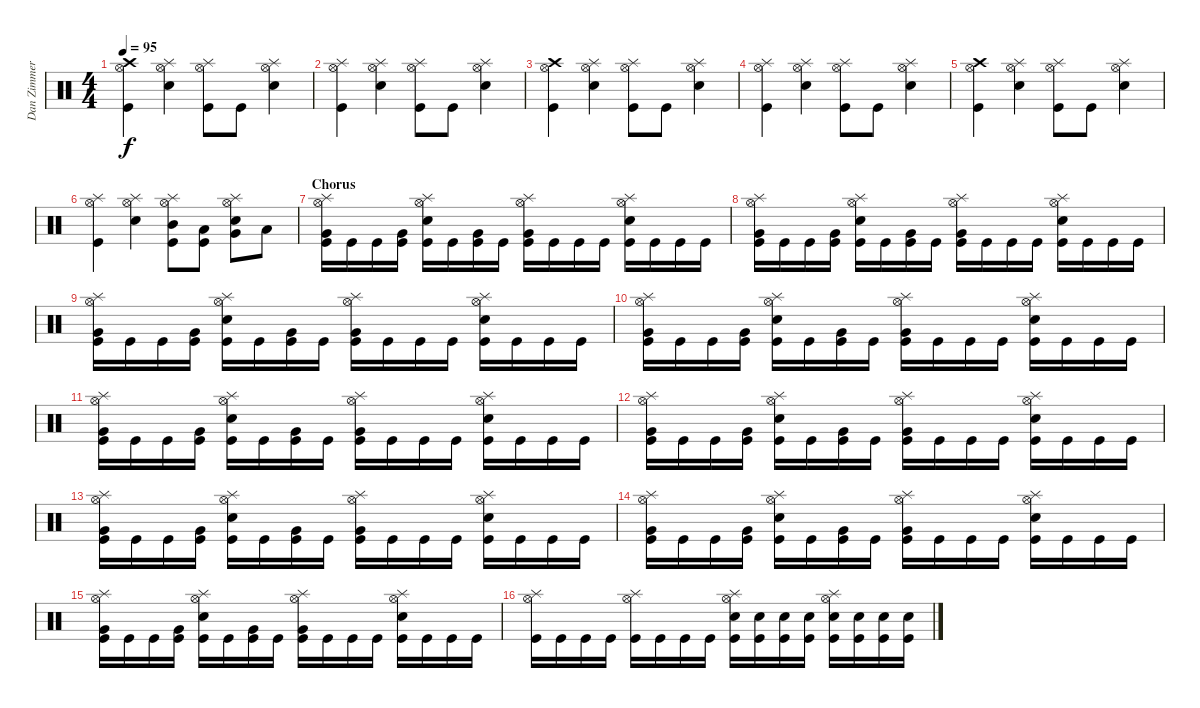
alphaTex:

\track ("Dan Zimmermann [drums]" "Dan Zimmer") {instrument percussion}
\staff {score}
\articulation defaults
\ts (4 4)
\tempo 95
\clef neutral
\ks c
("Hi-Hat (open)" "Crash high (hit)" "Kick (hit)").4{dy f} ("Hi-Hat (open)" "Splash (hit)" "Snare (hit) 2").4 ("Hi-Hat (open)" "Splash (hit)" "Kick (hit)").8 "Kick (hit)".8 ("Hi-Hat (open)" "Splash (hit)" "Snare (hit) 2").4 |
("Hi-Hat (open)" "Splash (hit)" "Kick (hit)").4 ("Hi-Hat (open)" "Splash (hit)" "Snare (hit) 2").4 ("Hi-Hat (open)" "Splash (hit)" "Kick (hit)").8 "Kick (hit)".8 ("Hi-Hat (open)" "Splash (hit)" "Snare (hit) 2").4 |
("Hi-Hat (open)" "Crash high (hit)" "Kick (hit)").4 ("Hi-Hat (open)" "Splash (hit)" "Snare (hit) 2").4 ("Hi-Hat (open)" "Splash (hit)" "Kick (hit)").8 "Kick (hit)".8 ("Hi-Hat (open)" "Splash (hit)" "Snare (hit) 2").4 |
("Hi-Hat (open)" "Splash (hit)" "Kick (hit)").4 ("Hi-Hat (open)" "Splash (hit)" "Snare (hit) 2").4 ("Hi-Hat (open)" "Splash (hit)" "Kick (hit)").8 "Kick (hit)".8 ("Hi-Hat (open)" "Splash (hit)" "Snare (hit) 2").4 |
("Hi-Hat (open)" "Crash high (hit)" "Kick (hit)").4 ("Hi-Hat (open)" "Splash (hit)" "Snare (hit) 2").4 ("Hi-Hat (open)" "Splash (hit)" "Kick (hit)").8 "Kick (hit)".8 ("Hi-Hat (open)" "Splash (hit)" "Snare (hit) 2").4 |
("Hi-Hat (open)" "Splash (hit)" "Kick (hit)").4 ("Hi-Hat (open)" "Splash (hit)" "Snare (hit) 2").4 ("Hi-Hat (open)" "Splash (hit)" "Mid Tom (hit)" "Kick (hit)").8 ("Low Tom (hit)" "Kick (hit)").8 ("Hi-Hat (open)" "Splash (hit)" "Snare (hit) 2" "Very Low Tom (hit)").8 "Low Floor Tom (hit)".8 |
\section ("" "Chorus")
("Hi-Hat (open)" "Splash (hit)" "Very Low Tom (hit)" "Kick (hit)").16 "Kick (hit)".16 "Kick (hit)".16 ("Very Low Tom (hit)" "Kick (hit)").16 ("Hi-Hat (open)" "Splash (hit)" "Snare (hit) 2" "Kick (hit)").16 "Kick (hit)".16 ("Very Low Tom (hit)" "Kick (hit)").16 "Kick (hit)".16 ("Hi-Hat (open)" "Splash (hit)" "Very Low Tom (hit)" "Kick (hit)").16 "Kick (hit)".16 "Kick (hit)".16 "Kick (hit)".16 ("Hi-Hat (open)" "Splash (hit)" "Snare (hit) 2" "Kick (hit)").16 "Kick (hit)".16 "Kick (hit)".16 "Kick (hit)".16 |
("Hi-Hat (open)" "Splash (hit)" "Very Low Tom (hit)" "Kick (hit)").16 "Kick (hit)".16 "Kick (hit)".16 ("Very Low Tom (hit)" "Kick (hit)").16 ("Hi-Hat (open)" "Splash (hit)" "Snare (hit) 2" "Kick (hit)").16 "Kick (hit)".16 ("Very Low Tom (hit)" "Kick (hit)").16 "Kick (hit)".16 ("Hi-Hat (open)" "Splash (hit)" "Very Low Tom (hit)" "Kick (hit)").16 "Kick (hit)".16 "Kick (hit)".16 "Kick (hit)".16 ("Hi-Hat (open)" "Splash (hit)" "Snare (hit) 2" "Kick (hit)").16 "Kick (hit)".16 "Kick (hit)".16 "Kick (hit)".16 |
("Hi-Hat (open)" "Splash (hit)" "Very Low Tom (hit)" "Kick (hit)").16 "Kick (hit)".16 "Kick (hit)".16 ("Very Low Tom (hit)" "Kick (hit)").16 ("Hi-Hat (open)" "Splash (hit)" "Snare (hit) 2" "Kick (hit)").16 "Kick (hit)".16 ("Very Low Tom (hit)" "Kick (hit)").16 "Kick (hit)".16 ("Hi-Hat (open)" "Splash (hit)" "Very Low Tom (hit)" "Kick (hit)").16 "Kick (hit)".16 "Kick (hit)".16 "Kick (hit)".16 ("Hi-Hat (open)" "Splash (hit)" "Snare (hit) 2" "Kick (hit)").16 "Kick (hit)".16 "Kick (hit)".16 "Kick (hit)".16 |
("Hi-Hat (open)" "Splash (hit)" "Very Low Tom (hit)" "Kick (hit)").16 "Kick (hit)".16 "Kick (hit)".16 ("Very Low Tom (hit)" "Kick (hit)").16 ("Hi-Hat (open)" "Splash (hit)" "Snare (hit) 2" "Kick (hit)").16 "Kick (hit)".16 ("Very Low Tom (hit)" "Kick (hit)").16 "Kick (hit)".16 ("Hi-Hat (open)" "Splash (hit)" "Very Low Tom (hit)" "Kick (hit)").16 "Kick (hit)".16 "Kick (hit)".16 "Kick (hit)".16 ("Hi-Hat (open)" "Splash (hit)" "Snare (hit) 2" "Kick (hit)").16 "Kick (hit)".16 "Kick (hit)".16 "Kick (hit)".16 |
("Hi-Hat (open)" "Splash (hit)" "Very Low Tom (hit)" "Kick (hit)").16 "Kick (hit)".16 "Kick (hit)".16 ("Very Low Tom (hit)" "Kick (hit)").16 ("Hi-Hat (open)" "Splash (hit)" "Snare (hit) 2" "Kick (hit)").16 "Kick (hit)".16 ("Very Low Tom (hit)" "Kick (hit)").16 "Kick (hit)".16 ("Hi-Hat (open)" "Splash (hit)" "Very Low Tom (hit)" "Kick (hit)").16 "Kick (hit)".16 "Kick (hit)".16 "Kick (hit)".16 ("Hi-Hat (open)" "Splash (hit)" "Snare (hit) 2" "Kick (hit)").16 "Kick (hit)".16 "Kick (hit)".16 "Kick (hit)".16 |
("Hi-Hat (open)" "Splash (hit)" "Very Low Tom (hit)" "Kick (hit)").16 "Kick (hit)".16 "Kick (hit)".16 ("Very Low Tom (hit)" "Kick (hit)").16 ("Hi-Hat (open)" "Splash (hit)" "Snare (hit) 2" "Kick (hit)").16 "Kick (hit)".16 ("Very Low Tom (hit)" "Kick (hit)").16 "Kick (hit)".16 ("Hi-Hat (open)" "Splash (hit)" "Very Low Tom (hit)" "Kick (hit)").16 "Kick (hit)".16 "Kick (hit)".16 "Kick (hit)".16 ("Hi-Hat (open)" "Splash (hit)" "Snare (hit) 2" "Kick (hit)").16 "Kick (hit)".16 "Kick (hit)".16 "Kick (hit)".16 |
("Hi-Hat (open)" "Splash (hit)" "Very Low Tom (hit)" "Kick (hit)").16 "Kick (hit)".16 "Kick (hit)".16 ("Very Low Tom (hit)" "Kick (hit)").16 ("Hi-Hat (open)" "Splash (hit)" "Snare (hit) 2" "Kick (hit)").16 "Kick (hit)".16 ("Very Low Tom (hit)" "Kick (hit)").16 "Kick (hit)".16 ("Hi-Hat (open)" "Splash (hit)" "Very Low Tom (hit)" "Kick (hit)").16 "Kick (hit)".16 "Kick (hit)".16 "Kick (hit)".16 ("Hi-Hat (open)" "Splash (hit)" "Snare (hit) 2" "Kick (hit)").16 "Kick (hit)".16 "Kick (hit)".16 "Kick (hit)".16 |
("Hi-Hat (open)" "Splash (hit)" "Very Low Tom (hit)" "Kick (hit)").16 "Kick (hit)".16 "Kick (hit)".16 ("Very Low Tom (hit)" "Kick (hit)").16 ("Hi-Hat (open)" "Splash (hit)" "Snare (hit) 2" "Kick (hit)").16 "Kick (hit)".16 ("Very Low Tom (hit)" "Kick (hit)").16 "Kick (hit)".16 ("Hi-Hat (open)" "Splash (hit)" "Very Low Tom (hit)" "Kick (hit)").16 "Kick (hit)".16 "Kick (hit)".16 "Kick (hit)".16 ("Hi-Hat (open)" "Splash (hit)" "Snare (hit) 2" "Kick (hit)").16 "Kick (hit)".16 "Kick (hit)".16 "Kick (hit)".16 |
("Hi-Hat (open)" "Splash (hit)" "Very Low Tom (hit)" "Kick (hit)").16 "Kick (hit)".16 "Kick (hit)".16 ("Very Low Tom (hit)" "Kick (hit)").16 ("Hi-Hat (open)" "Splash (hit)" "Snare (hit) 2" "Kick (hit)").16 "Kick (hit)".16 ("Very Low Tom (hit)" "Kick (hit)").16 "Kick (hit)".16 ("Hi-Hat (open)" "Splash (hit)" "Very Low Tom (hit)" "Kick (hit)").16 "Kick (hit)".16 "Kick (hit)".16 "Kick (hit)".16 ("Hi-Hat (open)" "Splash (hit)" "Snare (hit) 2" "Kick (hit)").16 "Kick (hit)".16 "Kick (hit)".16 "Kick (hit)".16 |
("Hi-Hat (open)" "Splash (hit)" "Kick (hit)").16 "Kick (hit)".16 "Kick (hit)".16 "Kick (hit)".16 ("Hi-Hat (open)" "Splash (hit)" "Kick (hit)").16 "Kick (hit)".16 "Kick (hit)".16 "Kick (hit)".16 ("Hi-Hat (open)" "Splash (hit)" "Snare (hit) 2" "Kick (hit)").16 ("Snare (hit) 2" "Kick (hit)").16 ("Snare (hit) 2" "Kick (hit)").16 ("Snare (hit) 2" "Kick (hit)").16 ("Hi-Hat (open)" "Splash (hit)" "Snare (hit) 2" "Kick (hit)").16 ("Snare (hit) 2" "Kick (hit)").16 ("Snare (hit) 2" "Kick (hit)").16 ("Snare (hit) 2" "Kick (hit)").16
